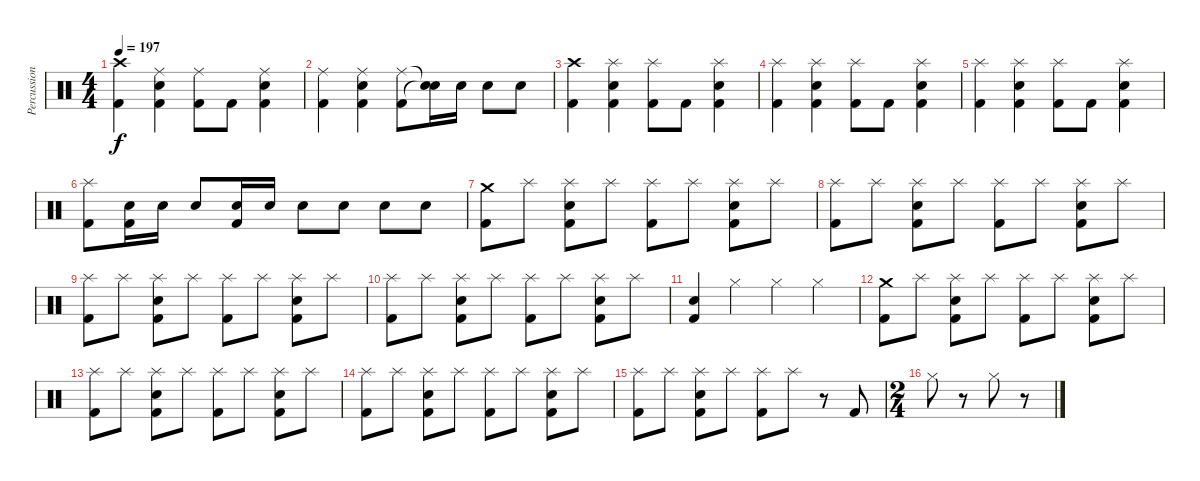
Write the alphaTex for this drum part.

\track ("Percussion" "Percussion") {instrument percussion}
\staff {score}
\articulation defaults
\ts (4 4)
\tempo 197
\clef neutral
\ks c
("Crash high (hit)" "Kick (hit) 2").4{dy f} ("Snare (hit) 2" "Ride (middle)" "Kick (hit) 2").4 ("Ride (middle)" "Kick (hit) 2").8 "Kick (hit) 2".8 ("Snare (hit) 2" "Ride (middle)" "Kick (hit) 2").4 |
("Ride (middle)" "Kick (hit) 2").4 ("Snare (hit) 2" "Ride (middle)" "Kick (hit) 2").4 ("Ride (middle)" "Kick (hit) 2").8 ("Snare (hit)"{t} "Snare (hit)"{t}).16 "Snare (hit) 2".16 "Snare (hit) 2".8 "Snare (hit) 2".8 |
("Crash high (hit)" "Kick (hit) 2").4 ("Snare (hit) 2" "Splash (hit)" "Kick (hit) 2").4 ("Splash (hit)" "Kick (hit) 2").8 "Kick (hit) 2".8 ("Snare (hit) 2" "Splash (hit)" "Kick (hit) 2").4 |
("Splash (hit)" "Kick (hit) 2").4 ("Snare (hit) 2" "Splash (hit)" "Kick (hit) 2").4 ("Splash (hit)" "Kick (hit) 2").8 "Kick (hit) 2".8 ("Snare (hit) 2" "Splash (hit)" "Kick (hit) 2").4 |
("Splash (hit)" "Kick (hit) 2").4 ("Snare (hit) 2" "Splash (hit)" "Kick (hit) 2").4 ("Splash (hit)" "Kick (hit) 2").8 "Kick (hit) 2".8 ("Snare (hit) 2" "Splash (hit)" "Kick (hit) 2").4 |
("Splash (hit)" "Kick (hit) 2").8 ("Snare (hit) 2" "Kick (hit) 2").16 "Snare (hit) 2".16 "Snare (hit) 2".8 ("Snare (hit) 2" "Kick (hit) 2").16 "Snare (hit) 2".16 "Snare (hit) 2".8 "Snare (hit) 2".8 "Snare (hit) 2".8 "Snare (hit) 2".8 |
("Crash medium (hit)" "Kick (hit) 2").8 "Splash (hit)".8 ("Snare (hit) 2" "Splash (hit)" "Kick (hit) 2").8 "Splash (hit)".8 ("Splash (hit)" "Kick (hit) 2").8 "Splash (hit)".8 ("Snare (hit) 2" "Splash (hit)" "Kick (hit) 2").8 "Splash (hit)".8 |
("Splash (hit)" "Kick (hit) 2").8 "Splash (hit)".8 ("Snare (hit) 2" "Splash (hit)" "Kick (hit) 2").8 "Splash (hit)".8 ("Splash (hit)" "Kick (hit) 2").8 "Splash (hit)".8 ("Snare (hit) 2" "Splash (hit)" "Kick (hit) 2").8 "Splash (hit)".8 |
("Splash (hit)" "Kick (hit) 2").8 "Splash (hit)".8 ("Snare (hit) 2" "Splash (hit)" "Kick (hit) 2").8 "Splash (hit)".8 ("Splash (hit)" "Kick (hit) 2").8 "Splash (hit)".8 ("Snare (hit) 2" "Splash (hit)" "Kick (hit) 2").8 "Splash (hit)".8 |
("Splash (hit)" "Kick (hit) 2").8 "Splash (hit)".8 ("Snare (hit) 2" "Splash (hit)" "Kick (hit) 2").8 "Splash (hit)".8 ("Splash (hit)" "Kick (hit) 2").8 "Splash (hit)".8 ("Snare (hit) 2" "Splash (hit)" "Kick (hit) 2").8 "Splash (hit)".8 |
("Snare (hit) 2" "Kick (hit) 2").4 "Hi-Hat (closed)".4 "Hi-Hat (closed)".4 "Hi-Hat (closed)".4 |
("Crash medium (hit)" "Kick (hit) 2").8 "Splash (hit)".8 ("Snare (hit) 2" "Splash (hit)" "Kick (hit) 2").8 "Splash (hit)".8 ("Splash (hit)" "Kick (hit) 2").8 "Splash (hit)".8 ("Snare (hit) 2" "Splash (hit)" "Kick (hit) 2").8 "Splash (hit)".8 |
("Splash (hit)" "Kick (hit) 2").8 "Splash (hit)".8 ("Snare (hit) 2" "Splash (hit)" "Kick (hit) 2").8 "Splash (hit)".8 ("Splash (hit)" "Kick (hit) 2").8 "Splash (hit)".8 ("Snare (hit) 2" "Splash (hit)" "Kick (hit) 2").8 "Splash (hit)".8 |
("Splash (hit)" "Kick (hit) 2").8 "Splash (hit)".8 ("Snare (hit) 2" "Splash (hit)" "Kick (hit) 2").8 "Splash (hit)".8 ("Splash (hit)" "Kick (hit) 2").8 "Splash (hit)".8 ("Snare (hit) 2" "Splash (hit)" "Kick (hit) 2").8 "Splash (hit)".8 |
("Splash (hit)" "Kick (hit) 2").8 "Splash (hit)".8 ("Snare (hit) 2" "Splash (hit)" "Kick (hit) 2").8 "Splash (hit)".8 ("Splash (hit)" "Kick (hit) 2").8 "Splash (hit)".8 r.8 "Kick (hit) 2".8 |
\ts (2 4)
"Hi-Hat (closed)".8 r.8 "Hi-Hat (closed)".8 r.8
